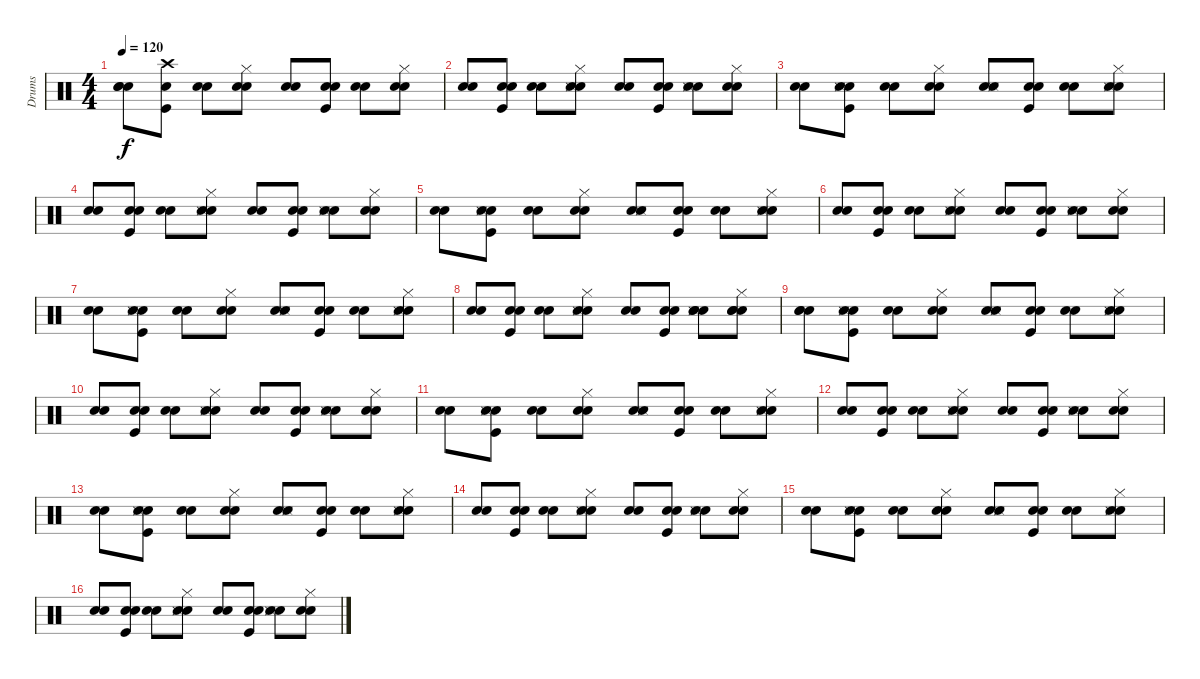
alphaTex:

\track ("Drums" "Drums") {instrument percussion}
\staff {score}
\articulation defaults
\ts (4 4)
\tempo 120
\clef neutral
\ks c
("Snare (hit)" "Snare (hit) 2" "Hand Clap (hit)").8{dy f} ("Snare (hit)" "Kick (hit)" "Crash high (hit)").8 ("Snare (hit)" "Snare (hit) 2").8 ("Snare (hit)" "Snare (hit) 2" "Hi-Hat (closed)").8 ("Snare (hit)" "Snare (hit) 2").8 ("Snare (hit)" "Kick (hit)" "Snare (hit) 2").8 ("Snare (hit)" "Snare (hit) 2").8 ("Snare (hit)" "Snare (hit) 2" "Hi-Hat (closed)").8 |
("Snare (hit)" "Snare (hit) 2").8 ("Snare (hit)" "Kick (hit)" "Snare (hit) 2").8 ("Snare (hit)" "Snare (hit) 2").8 ("Snare (hit)" "Snare (hit) 2" "Hi-Hat (closed)" "Snare (side stick) 3").8 ("Snare (hit)" "Hand Clap (hit)").8 ("Snare (hit)" "Kick (hit)" "Snare (hit) 2").8 ("Snare (hit)" "Snare (hit) 2" "Snare (side stick) 3").8 ("Snare (hit)" "Snare (hit) 2" "Hi-Hat (closed)").8 |
("Snare (hit)" "Snare (hit) 2").8 ("Snare (hit)" "Kick (hit)" "Snare (hit) 2" "Snare (side stick) 3").8 ("Snare (hit)" "Snare (hit) 2").8 ("Snare (hit)" "Snare (hit) 2" "Hi-Hat (closed)").8 ("Snare (hit)" "Snare (hit) 2" "Snare (side stick) 3").8 ("Snare (hit)" "Kick (hit)" "Snare (hit) 2").8 ("Snare (hit)" "Snare (hit) 2").8 ("Snare (hit)" "Snare (hit) 2" "Hi-Hat (closed)" "Snare (side stick) 3").8 |
("Snare (hit)" "Snare (hit) 2").8 ("Snare (hit)" "Kick (hit)" "Snare (hit) 2").8 ("Snare (hit)" "Snare (hit) 2").8 ("Snare (hit)" "Snare (hit) 2" "Hi-Hat (closed)" "Snare (side stick) 3").8 ("Snare (hit)" "Hand Clap (hit)").8 ("Snare (hit)" "Kick (hit)" "Snare (hit) 2").8 ("Snare (hit)" "Snare (hit) 2" "Snare (side stick) 3").8 ("Snare (hit)" "Snare (hit) 2" "Hi-Hat (closed)").8 |
("Snare (hit)" "Snare (hit) 2").8 ("Snare (hit)" "Kick (hit)" "Snare (hit) 2" "Snare (side stick) 3").8 ("Snare (hit)" "Snare (hit) 2").8 ("Snare (hit)" "Snare (hit) 2" "Hi-Hat (closed)").8 ("Snare (hit)" "Snare (hit) 2" "Snare (side stick) 3").8 ("Snare (hit)" "Kick (hit)" "Snare (hit) 2").8 ("Snare (hit)" "Snare (hit) 2").8 ("Snare (hit)" "Snare (hit) 2" "Hi-Hat (closed)" "Snare (side stick) 3").8 |
("Snare (hit)" "Snare (hit) 2").8 ("Snare (hit)" "Kick (hit)" "Snare (hit) 2").8 ("Snare (hit)" "Snare (hit) 2").8 ("Snare (hit)" "Snare (hit) 2" "Hi-Hat (closed)" "Snare (side stick) 3").8 ("Snare (hit)" "Hand Clap (hit)").8 ("Snare (hit)" "Kick (hit)" "Snare (hit) 2").8 ("Snare (hit)" "Snare (hit) 2" "Snare (side stick) 3").8 ("Snare (hit)" "Snare (hit) 2" "Hi-Hat (closed)").8 |
("Snare (hit)" "Snare (hit) 2").8 ("Snare (hit)" "Kick (hit)" "Snare (hit) 2" "Snare (side stick) 3").8 ("Snare (hit)" "Snare (hit) 2").8 ("Snare (hit)" "Snare (hit) 2" "Hi-Hat (closed)").8 ("Snare (hit)" "Snare (hit) 2" "Snare (side stick) 3").8 ("Snare (hit)" "Kick (hit)" "Snare (hit) 2").8 ("Snare (hit)" "Snare (hit) 2").8 ("Snare (hit)" "Snare (hit) 2" "Hi-Hat (closed)" "Snare (side stick) 3").8 |
("Snare (hit)" "Snare (hit) 2").8 ("Snare (hit)" "Kick (hit)" "Snare (hit) 2").8 ("Snare (hit)" "Snare (hit) 2").8 ("Snare (hit)" "Snare (hit) 2" "Hi-Hat (closed)" "Snare (side stick) 3").8 ("Snare (hit)" "Hand Clap (hit)").8 ("Snare (hit)" "Kick (hit)" "Snare (hit) 2").8 ("Snare (hit)" "Snare (hit) 2" "Snare (side stick) 3" "Hand Clap (hit)").8 ("Snare (hit)" "Snare (hit) 2" "Hi-Hat (closed)" "Hand Clap (hit)").8 |
("Snare (hit)" "Snare (hit) 2" "Hand Clap (hit)").8 ("Snare (hit)" "Kick (hit)" "Snare (hit) 2" "Snare (side stick) 3").8 ("Snare (hit)" "Snare (hit) 2").8 ("Snare (hit)" "Snare (hit) 2" "Hi-Hat (closed)").8 ("Snare (hit)" "Snare (hit) 2" "Snare (side stick) 3").8 ("Snare (hit)" "Kick (hit)" "Snare (hit) 2").8 ("Snare (hit)" "Snare (hit) 2").8 ("Snare (hit)" "Snare (hit) 2" "Hi-Hat (closed)" "Snare (side stick) 3").8 |
("Snare (hit)" "Snare (hit) 2").8 ("Snare (hit)" "Kick (hit)" "Snare (hit) 2").8 ("Snare (hit)" "Snare (hit) 2").8 ("Snare (hit)" "Snare (hit) 2" "Hi-Hat (closed)" "Snare (side stick) 3").8 ("Snare (hit)" "Hand Clap (hit)").8 ("Snare (hit)" "Kick (hit)" "Snare (hit) 2").8 ("Snare (hit)" "Snare (hit) 2" "Snare (side stick) 3").8 ("Snare (hit)" "Snare (hit) 2" "Hi-Hat (closed)").8 |
("Snare (hit)" "Snare (hit) 2").8 ("Snare (hit)" "Kick (hit)" "Snare (hit) 2" "Snare (side stick) 3").8 ("Snare (hit)" "Snare (hit) 2").8 ("Snare (hit)" "Snare (hit) 2" "Hi-Hat (closed)").8 ("Snare (hit)" "Snare (hit) 2" "Snare (side stick) 3").8 ("Snare (hit)" "Kick (hit)" "Snare (hit) 2").8 ("Snare (hit)" "Snare (hit) 2").8 ("Snare (hit)" "Snare (hit) 2" "Hi-Hat (closed)" "Snare (side stick) 3").8 |
("Snare (hit)" "Snare (hit) 2").8 ("Snare (hit)" "Kick (hit)" "Snare (hit) 2").8 ("Snare (hit)" "Snare (hit) 2").8 ("Snare (hit)" "Snare (hit) 2" "Hi-Hat (closed)" "Snare (side stick) 3").8 ("Snare (hit)" "Hand Clap (hit)").8 ("Snare (hit)" "Kick (hit)" "Snare (hit) 2").8 ("Snare (hit)" "Snare (hit) 2" "Snare (side stick) 3").8 ("Snare (hit)" "Snare (hit) 2" "Hi-Hat (closed)").8 |
("Snare (hit)" "Snare (hit) 2").8 ("Snare (hit)" "Kick (hit)" "Snare (hit) 2" "Snare (side stick) 3").8 ("Snare (hit)" "Snare (hit) 2").8 ("Snare (hit)" "Snare (hit) 2" "Hi-Hat (closed)").8 ("Snare (hit)" "Snare (hit) 2" "Snare (side stick) 3").8 ("Snare (hit)" "Kick (hit)" "Snare (hit) 2").8 ("Snare (hit)" "Snare (hit) 2").8 ("Snare (hit)" "Snare (hit) 2" "Hi-Hat (closed)" "Snare (side stick) 3").8 |
("Snare (hit)" "Snare (hit) 2").8 ("Snare (hit)" "Kick (hit)" "Snare (hit) 2").8 ("Snare (hit)" "Snare (hit) 2").8 ("Snare (hit)" "Snare (hit) 2" "Hi-Hat (closed)" "Snare (side stick) 3").8 ("Snare (hit)" "Hand Clap (hit)").8 ("Snare (hit)" "Kick (hit)" "Snare (hit) 2").8 ("Snare (hit)" "Snare (hit) 2" "Snare (side stick) 3").8 ("Snare (hit)" "Snare (hit) 2" "Hi-Hat (closed)").8 |
("Snare (hit)" "Snare (hit) 2").8 ("Snare (hit)" "Kick (hit)" "Snare (hit) 2" "Snare (side stick) 3").8 ("Snare (hit)" "Snare (hit) 2").8 ("Snare (hit)" "Snare (hit) 2" "Hi-Hat (closed)").8 ("Snare (hit)" "Snare (hit) 2" "Snare (side stick) 3").8 ("Snare (hit)" "Kick (hit)" "Snare (hit) 2").8 ("Snare (hit)" "Snare (hit) 2").8 ("Snare (hit)" "Snare (hit) 2" "Hi-Hat (closed)" "Snare (side stick) 3").8 |
("Snare (hit)" "Snare (hit) 2").8 ("Snare (hit)" "Kick (hit)" "Snare (hit) 2").8 ("Snare (hit)" "Snare (hit) 2").8 ("Snare (hit)" "Snare (hit) 2" "Hi-Hat (closed)" "Snare (side stick) 3").8 ("Snare (hit)" "Hand Clap (hit)").8 ("Snare (hit)" "Kick (hit)" "Snare (hit) 2").8 ("Snare (hit)" "Snare (hit) 2" "Snare (side stick) 3").8 ("Snare (hit)" "Snare (hit) 2" "Hi-Hat (closed)").8
